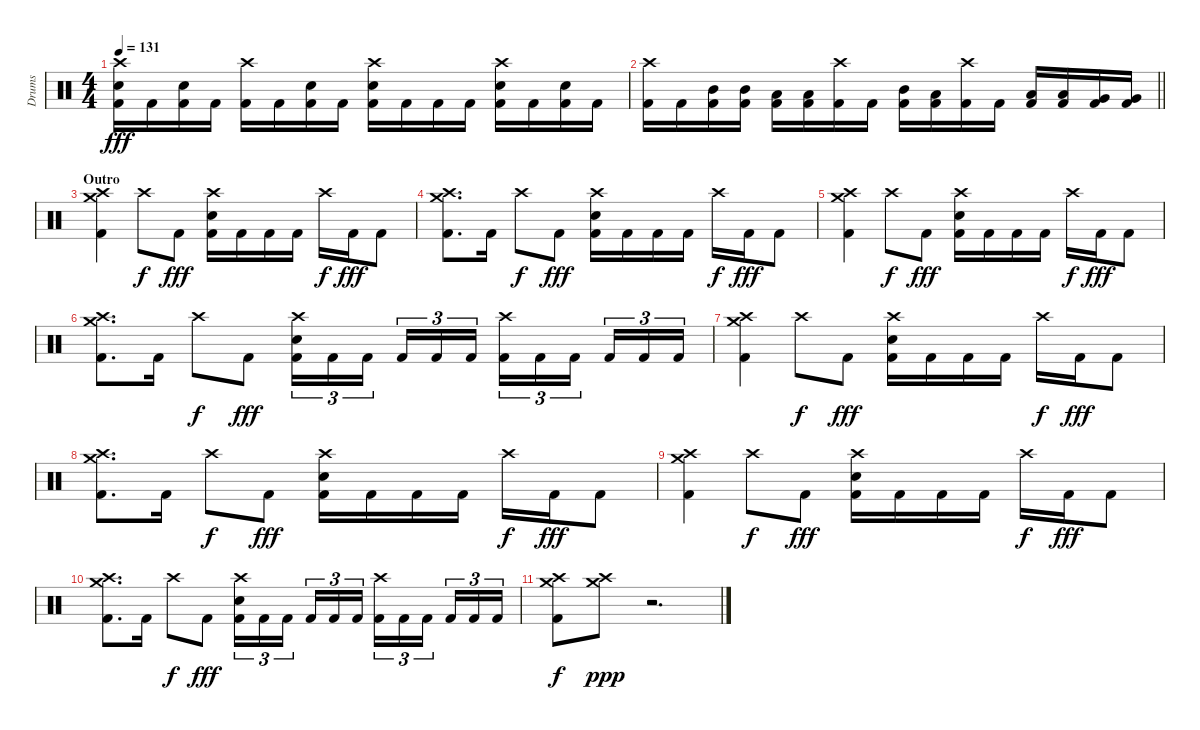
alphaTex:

\track ("Drums" "Drums") {instrument percussion}
\staff {score}
\articulation defaults
\ts (4 4)
\tempo 131
\clef neutral
\ks c
("Crash high (hit)" "Electric Snare (hit)" "Kick (hit) 2").16{dy fff} "Kick (hit) 2".16 ("Electric Snare (hit)" "Kick (hit) 2").16 "Kick (hit) 2".16 ("Crash high (hit)" "Kick (hit) 2").16 "Kick (hit) 2".16 ("Electric Snare (hit)" "Kick (hit) 2").16 "Kick (hit) 2".16 ("Crash high (hit)" "Electric Snare (hit)" "Kick (hit) 2").16 "Kick (hit) 2".16 "Kick (hit) 2".16 "Kick (hit) 2".16 ("Crash high (hit)" "Electric Snare (hit)" "Kick (hit) 2").16 "Kick (hit) 2".16 ("Electric Snare (hit)" "Kick (hit) 2").16 "Kick (hit) 2".16 |
\barLineRight lightlight
("Crash high (hit)" "Kick (hit) 2").16 "Kick (hit) 2".16 ("Mid Tom (hit)" "Kick (hit) 2").16 ("Mid Tom (hit)" "Kick (hit) 2").16 ("Low Tom (hit)" "Kick (hit) 2").16 ("Low Tom (hit)" "Kick (hit) 2").16 ("Crash high (hit)" "Kick (hit) 2").16 "Kick (hit) 2".16 ("Mid Tom (hit)" "Kick (hit) 2").16 ("Low Tom (hit)" "Kick (hit) 2").16 ("Crash high (hit)" "Kick (hit) 2").16 "Kick (hit) 2".16 ("Low Tom (hit)" "Kick (hit) 2").16 ("Low Tom (hit)" "Kick (hit) 2").16 ("Very Low Tom (hit)" "Kick (hit) 2").16 ("Very Low Tom (hit)" "Kick (hit) 2").16 |
\section ("" "Outro")
("Crash medium (hit)" "Crash high (hit)" "Kick (hit) 2").4 "Crash high (hit)".8{dy f} "Kick (hit) 2".8{dy fff} ("Crash high (hit)" "Electric Snare (hit)" "Kick (hit) 2").16 "Kick (hit) 2".16 "Kick (hit) 2".16 "Kick (hit) 2".16 "Crash high (hit)".16{dy f} "Kick (hit) 2".16{dy fff} "Kick (hit) 2".8 |
("Crash medium (hit)" "Crash high (hit)" "Kick (hit) 2").8{d} "Kick (hit) 2".16 "Crash high (hit)".8{dy f} "Kick (hit) 2".8{dy fff} ("Crash high (hit)" "Electric Snare (hit)" "Kick (hit) 2").16 "Kick (hit) 2".16 "Kick (hit) 2".16 "Kick (hit) 2".16 "Crash high (hit)".16{dy f} "Kick (hit) 2".16{dy fff} "Kick (hit) 2".8 |
("Crash medium (hit)" "Crash high (hit)" "Kick (hit) 2").4 "Crash high (hit)".8{dy f} "Kick (hit) 2".8{dy fff} ("Crash high (hit)" "Electric Snare (hit)" "Kick (hit) 2").16 "Kick (hit) 2".16 "Kick (hit) 2".16 "Kick (hit) 2".16 "Crash high (hit)".16{dy f} "Kick (hit) 2".16{dy fff} "Kick (hit) 2".8 |
("Crash medium (hit)" "Crash high (hit)" "Kick (hit) 2").8{d} "Kick (hit) 2".16 "Crash high (hit)".8{dy f} "Kick (hit) 2".8{dy fff} ("Crash high (hit)" "Electric Snare (hit)" "Kick (hit) 2").16{tu (3 2)} "Kick (hit) 2".16{tu (3 2)} "Kick (hit) 2".16{tu (3 2) beam splitsecondary} "Kick (hit) 2".16{tu (3 2)} "Kick (hit) 2".16{tu (3 2)} "Kick (hit) 2".16{tu (3 2)} ("Crash high (hit)" "Kick (hit) 2").16{tu (3 2)} "Kick (hit) 2".16{tu (3 2)} "Kick (hit) 2".16{tu (3 2) beam splitsecondary} "Kick (hit) 2".16{tu (3 2)} "Kick (hit) 2".16{tu (3 2)} "Kick (hit) 2".16{tu (3 2)} |
("Crash medium (hit)" "Crash high (hit)" "Kick (hit) 2").4 "Crash high (hit)".8{dy f} "Kick (hit) 2".8{dy fff} ("Crash high (hit)" "Electric Snare (hit)" "Kick (hit) 2").16 "Kick (hit) 2".16 "Kick (hit) 2".16 "Kick (hit) 2".16 "Crash high (hit)".16{dy f} "Kick (hit) 2".16{dy fff} "Kick (hit) 2".8 |
("Crash medium (hit)" "Crash high (hit)" "Kick (hit) 2").8{d} "Kick (hit) 2".16 "Crash high (hit)".8{dy f} "Kick (hit) 2".8{dy fff} ("Crash high (hit)" "Electric Snare (hit)" "Kick (hit) 2").16 "Kick (hit) 2".16 "Kick (hit) 2".16 "Kick (hit) 2".16 "Crash high (hit)".16{dy f} "Kick (hit) 2".16{dy fff} "Kick (hit) 2".8 |
("Crash medium (hit)" "Crash high (hit)" "Kick (hit) 2").4 "Crash high (hit)".8{dy f} "Kick (hit) 2".8{dy fff} ("Crash high (hit)" "Electric Snare (hit)" "Kick (hit) 2").16 "Kick (hit) 2".16 "Kick (hit) 2".16 "Kick (hit) 2".16 "Crash high (hit)".16{dy f} "Kick (hit) 2".16{dy fff} "Kick (hit) 2".8 |
("Crash medium (hit)" "Crash high (hit)" "Kick (hit) 2").8{d} "Kick (hit) 2".16 "Crash high (hit)".8{dy f} "Kick (hit) 2".8{dy fff} ("Crash high (hit)" "Electric Snare (hit)" "Kick (hit) 2").16{tu (3 2)} "Kick (hit) 2".16{tu (3 2)} "Kick (hit) 2".16{tu (3 2) beam splitsecondary} "Kick (hit) 2".16{tu (3 2)} "Kick (hit) 2".16{tu (3 2)} "Kick (hit) 2".16{tu (3 2)} ("Crash high (hit)" "Kick (hit) 2").16{tu (3 2)} "Kick (hit) 2".16{tu (3 2)} "Kick (hit) 2".16{tu (3 2) beam splitsecondary} "Kick (hit) 2".16{tu (3 2)} "Kick (hit) 2".16{tu (3 2)} "Kick (hit) 2".16{tu (3 2)} |
("Crash medium (hit)" "Crash high (hit)" "Kick (hit) 2").8{dy f} ("Crash medium (hit)" "Crash high (hit)").8{dy ppp} r.2{d}
